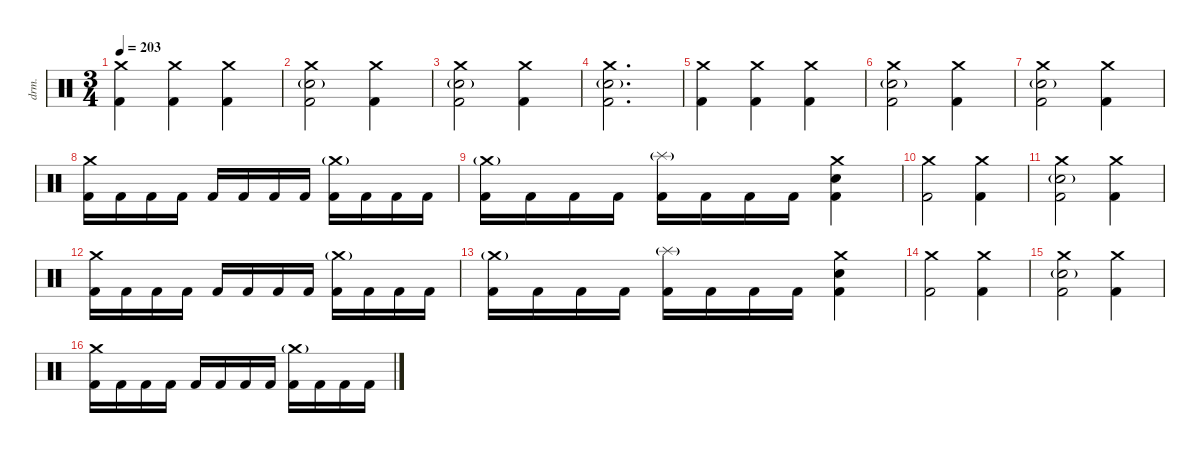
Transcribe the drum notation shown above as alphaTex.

\defaultSystemsLayout 4
\hideDynamics
\bracketExtendMode nobrackets
\otherSystemsTrackNameOrientation horizontal
\track ("Drums" "drm.") {instrument percussion}
\staff {score}
\articulation defaults
\ts (3 4)
\tempo 203
\clef neutral
\ks c
("Crash medium (hit)" "Kick (hit) 2").4{dy f beam Down} ("Crash medium (hit)" "Kick (hit) 2").4{beam Down} ("Crash medium (hit)" "Kick (hit) 2").4{beam Down} |
("Crash medium (hit)" "Snare (hit) 2"{g} "Kick (hit) 2").2{beam Down} ("Crash medium (hit)" "Kick (hit) 2").4{beam Down} |
("Crash medium (hit)" "Snare (hit) 2"{g} "Kick (hit) 2").2{beam Down} ("Crash medium (hit)" "Kick (hit) 2").4{beam Down} |
("Crash medium (hit)" "Snare (hit) 2"{g} "Kick (hit) 2").2{d beam Down} |
("Crash medium (hit)" "Kick (hit) 2").4{beam Down} ("Crash medium (hit)" "Kick (hit) 2").4{beam Down} ("Crash medium (hit)" "Kick (hit) 2").4{beam Down} |
("Crash medium (hit)" "Snare (hit) 2"{g} "Kick (hit) 2").2{beam Down} ("Crash medium (hit)" "Kick (hit) 2").4{beam Down} |
("Crash medium (hit)" "Snare (hit) 2"{g} "Kick (hit) 2").2{beam Down} ("Crash medium (hit)" "Kick (hit) 2").4{beam Down} |
("Crash medium (hit)" "Kick (hit) 2").16{beam Down} "Kick (hit) 2".16{beam Down} "Kick (hit) 2".16{beam Down} "Kick (hit) 2".16{beam Down} "Kick (hit) 2".16{beam Up} "Kick (hit) 2".16{beam Up} "Kick (hit) 2".16{beam Up} "Kick (hit) 2".16{beam Up} ("Crash medium (hit)"{g} "Kick (hit) 2").16{beam Down} "Kick (hit) 2".16{beam Down} "Kick (hit) 2".16{beam Down} "Kick (hit) 2".16{beam Down} |
("Crash medium (hit)"{g} "Kick (hit) 2").16{beam Down} "Kick (hit) 2".16{beam Down} "Kick (hit) 2".16{beam Down} "Kick (hit) 2".16{beam Down} ("Splash (hit)"{g} "Kick (hit) 2").16{beam Down} "Kick (hit) 2".16{beam Down} "Kick (hit) 2".16{beam Down} "Kick (hit) 2".16{beam Down} ("Crash medium (hit)" "Snare (hit) 2" "Kick (hit) 2").4{beam Down} |
("Crash medium (hit)" "Kick (hit) 2").2{beam Down} ("Crash medium (hit)" "Kick (hit) 2").4{beam Down} |
("Crash medium (hit)" "Snare (hit) 2"{g} "Kick (hit) 2").2{beam Down} ("Crash medium (hit)" "Kick (hit) 2").4{beam Down} |
("Crash medium (hit)" "Kick (hit) 2").16{beam Down} "Kick (hit) 2".16{beam Down} "Kick (hit) 2".16{beam Down} "Kick (hit) 2".16{beam Down} "Kick (hit) 2".16{beam Up} "Kick (hit) 2".16{beam Up} "Kick (hit) 2".16{beam Up} "Kick (hit) 2".16{beam Up} ("Crash medium (hit)"{g} "Kick (hit) 2").16{beam Down} "Kick (hit) 2".16{beam Down} "Kick (hit) 2".16{beam Down} "Kick (hit) 2".16{beam Down} |
("Crash medium (hit)"{g} "Kick (hit) 2").16{beam Down} "Kick (hit) 2".16{beam Down} "Kick (hit) 2".16{beam Down} "Kick (hit) 2".16{beam Down} ("Splash (hit)"{g} "Kick (hit) 2").16{beam Down} "Kick (hit) 2".16{beam Down} "Kick (hit) 2".16{beam Down} "Kick (hit) 2".16{beam Down} ("Crash medium (hit)" "Snare (hit) 2" "Kick (hit) 2").4{beam Down} |
("Crash medium (hit)" "Kick (hit) 2").2{beam Down} ("Crash medium (hit)" "Kick (hit) 2").4{beam Down} |
("Crash medium (hit)" "Snare (hit) 2"{g} "Kick (hit) 2").2{beam Down} ("Crash medium (hit)" "Kick (hit) 2").4{beam Down} |
("Crash medium (hit)" "Kick (hit) 2").16{beam Down} "Kick (hit) 2".16{beam Down} "Kick (hit) 2".16{beam Down} "Kick (hit) 2".16{beam Down} "Kick (hit) 2".16{beam Up} "Kick (hit) 2".16{beam Up} "Kick (hit) 2".16{beam Up} "Kick (hit) 2".16{beam Up} ("Crash medium (hit)"{g} "Kick (hit) 2").16{beam Down} "Kick (hit) 2".16{beam Down} "Kick (hit) 2".16{beam Down} "Kick (hit) 2".16{beam Down}
